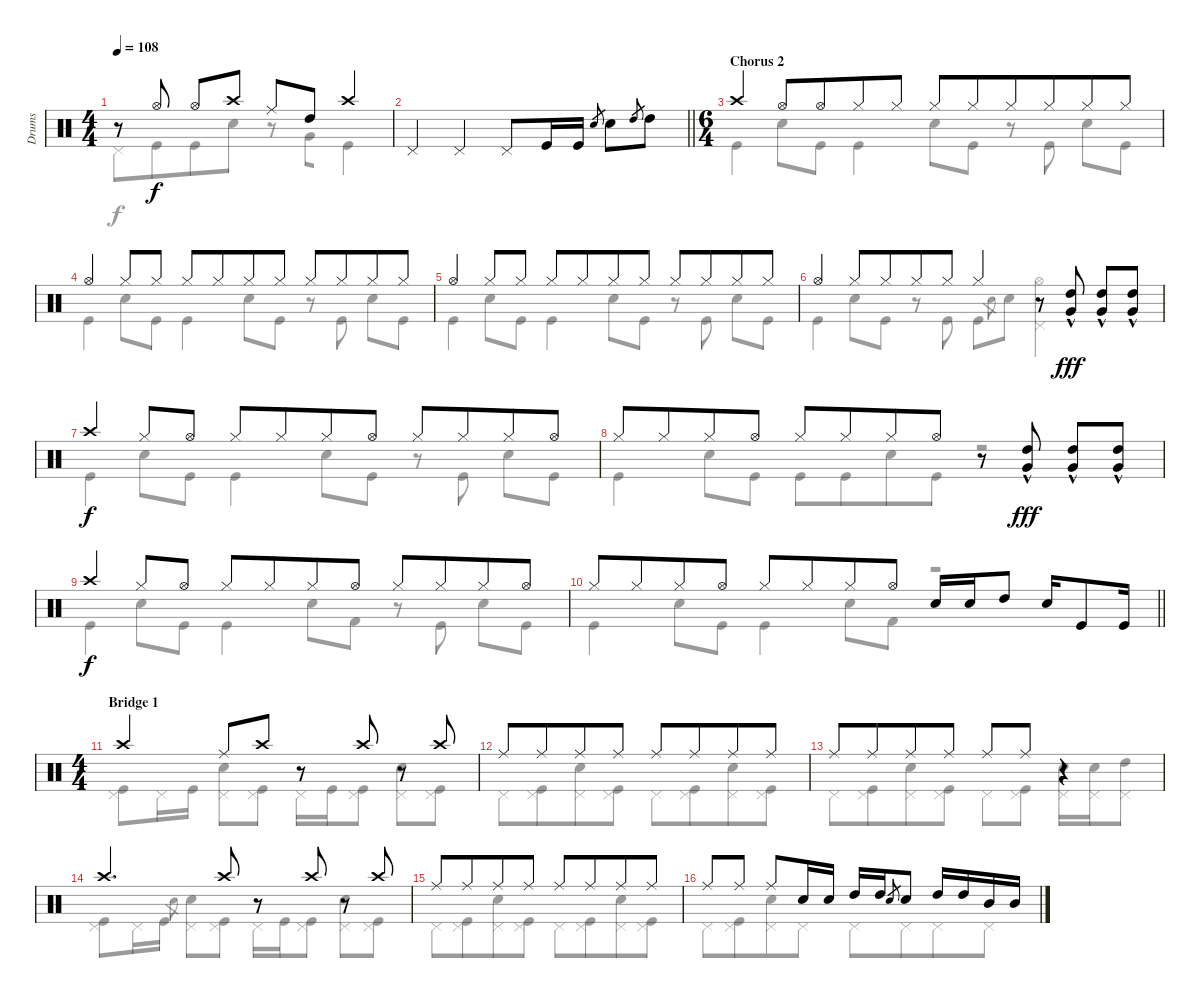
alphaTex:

\track ("Drums" "Drums") {instrument percussion}
\staff {score}
\articulation defaults
\voice
\ts (4 4)
\tempo 108
\clef neutral
\ks c
r.8{dy f} "Hi-Hat (open)".8 "Hi-Hat (open)".8 "Crash high (hit)".8 "Ride (middle)".8 "High Tom (hit)".8 "Crash high (hit)".4 |
\barLineRight lightlight "Pedal Hi-Hat (hit)".4 "Pedal Hi-Hat (hit)".4 "Pedal Hi-Hat (hit)".8 "Kick (hit)".16 "Kick (hit)".16 "Snare (hit) 2".8{gr} "Snare (hit) 2".8 "High Tom (hit)".8{gr} "High Tom (hit)".8
|
\ts (6 4)
\section ("" "Chorus 2")
"Crash high (hit)".4{beam Up beam split} "Hi-Hat (open)".8{beam Up beam merge} "Hi-Hat (open)".8{beam Up beam merge} "Hi-Hat (closed)".8{beam Up beam merge} "Hi-Hat (closed)".8{beam Up beam split} "Hi-Hat (closed)".8{beam Up beam merge} "Hi-Hat (closed)".8{beam Up beam merge} "Hi-Hat (closed)".8{beam Up beam merge} "Hi-Hat (closed)".8{beam Up beam merge} "Hi-Hat (closed)".8{beam Up beam merge} "Hi-Hat (closed)".8{beam Up} |
"Hi-Hat (open)".4{beam Up} "Hi-Hat (closed)".8{beam Up beam merge} "Hi-Hat (closed)".8{beam Up beam split} "Hi-Hat (closed)".8{beam Up beam merge} "Hi-Hat (closed)".8{beam Up beam merge} "Hi-Hat (closed)".8{beam Up beam merge} "Hi-Hat (closed)".8{beam Up beam split} "Hi-Hat (closed)".8{beam Up beam merge} "Hi-Hat (closed)".8{beam Up beam merge} "Hi-Hat (closed)".8{beam Up beam merge} "Hi-Hat (closed)".8{beam Up} |
"Hi-Hat (open)".4{beam Up} "Hi-Hat (closed)".8{beam Up beam merge} "Hi-Hat (closed)".8{beam Up beam split} "Hi-Hat (closed)".8{beam Up beam merge} "Hi-Hat (closed)".8{beam Up beam merge} "Hi-Hat (closed)".8{beam Up beam merge} "Hi-Hat (closed)".8{beam Up beam split} "Hi-Hat (closed)".8{beam Up beam merge} "Hi-Hat (closed)".8{beam Up beam merge} "Hi-Hat (closed)".8{beam Up beam merge} "Hi-Hat (closed)".8{beam Up} |
"Hi-Hat (open)".4{beam Up} "Hi-Hat (closed)".8{beam Up beam merge} "Hi-Hat (closed)".8{beam Up beam merge} "Hi-Hat (closed)".8{beam Up beam merge} "Hi-Hat (closed)".8{beam Up beam merge} "Hi-Hat (closed)".4{beam Up} r.8 ("High Tom (hit)"{hac} "Very Low Tom (hit)"{hac}).8{dy fff beam Up} ("High Tom (hit)"{hac} "Very Low Tom (hit)"{hac}).8{beam Up} ("High Tom (hit)"{hac} "Very Low Tom (hit)"{hac}).8{beam Up} |
"Crash high (hit)".4{dy f beam Up} "Hi-Hat (closed)".8{beam Up beam merge} "Hi-Hat (open)".8{beam Up beam split} "Hi-Hat (closed)".8{beam Up beam merge} "Hi-Hat (closed)".8{beam Up beam merge} "Hi-Hat (closed)".8{beam Up beam merge} "Hi-Hat (open)".8{beam Up beam split} "Hi-Hat (closed)".8{beam Up beam merge} "Hi-Hat (closed)".8{beam Up beam merge} "Hi-Hat (closed)".8{beam Up beam merge} "Hi-Hat (open)".8{beam Up} |
"Hi-Hat (closed)".8{beam Up beam merge} "Hi-Hat (closed)".8{beam Up beam merge} "Hi-Hat (closed)".8{beam Up beam merge} "Hi-Hat (open)".8{beam Up beam split} "Hi-Hat (closed)".8{beam Up beam merge} "Hi-Hat (closed)".8{beam Up beam merge} "Hi-Hat (closed)".8{beam Up beam merge} "Hi-Hat (open)".8{beam Up} r.8 ("High Tom (hit)"{hac} "Very Low Tom (hit)"{hac}).8{dy fff beam Up} ("High Tom (hit)"{hac} "Very Low Tom (hit)"{hac}).8{beam Up} ("High Tom (hit)"{hac} "Very Low Tom (hit)"{hac}).8{beam Up} |
"Crash high (hit)".4{dy f beam Up} "Hi-Hat (closed)".8{beam Up beam merge} "Hi-Hat (open)".8{beam Up beam split} "Hi-Hat (closed)".8{beam Up beam merge} "Hi-Hat (closed)".8{beam Up beam merge} "Hi-Hat (closed)".8{beam Up beam merge} "Hi-Hat (open)".8{beam Up beam split} "Hi-Hat (closed)".8{beam Up beam merge} "Hi-Hat (closed)".8{beam Up beam merge} "Hi-Hat (closed)".8{beam Up beam merge} "Hi-Hat (open)".8{beam Up} |
\barLineRight lightlight "Hi-Hat (closed)".8{beam Up beam merge} "Hi-Hat (closed)".8{beam Up beam merge} "Hi-Hat (closed)".8{beam Up beam merge} "Hi-Hat (open)".8{beam Up beam split} "Hi-Hat (closed)".8{beam Up beam merge} "Hi-Hat (closed)".8{beam Up beam merge} "Hi-Hat (closed)".8{beam Up beam merge} "Hi-Hat (open)".8{beam Up beam split} "Snare (hit) 2".16{beam Up beam merge} "Snare (hit) 2".16{beam Up beam merge} "High Tom (hit)".8{beam Up beam split} "Snare (hit) 2".16{beam Up beam merge} "Kick (hit)".8{beam Up} "Kick (hit)".16
|
\ts (4 4)
\section ("" "Bridge 1")
"Crash high (hit)".4{beam Up} "Ride (middle)".8{beam Up} "Crash high (hit)".8{beam Up} r.8 "Crash high (hit)".8{beam Up} r.8 "Crash high (hit)".8{beam Up} |
"Ride (middle)".8{beam Up} "Ride (middle)".8{beam Up beam merge} "Ride (middle)".8{beam Up} "Ride (middle)".8{beam Up} "Ride (middle)".8{beam Up} "Ride (middle)".8{beam Up beam merge} "Ride (middle)".8{beam Up} "Ride (middle)".8{beam Up} |
"Ride (middle)".8{beam Up} "Ride (middle)".8{beam Up beam merge} "Ride (middle)".8{beam Up} "Ride (middle)".8{beam Up} "Ride (middle)".8{beam Up} "Ride (middle)".8{beam Up} r.4 |
"Crash high (hit)".4{d beam Up} "Crash high (hit)".8{beam Up} r.8 "Crash high (hit)".8{beam Up} r.8 "Crash high (hit)".8{beam Up} |
"Ride (middle)".8{beam Up} "Ride (middle)".8{beam Up beam merge} "Ride (middle)".8{beam Up} "Ride (middle)".8{beam Up} "Ride (middle)".8{beam Up} "Ride (middle)".8{beam Up beam merge} "Ride (middle)".8{beam Up} "Ride (middle)".8{beam Up} |
"Ride (middle)".8{beam Up} "Ride (middle)".8{beam Up} "Ride (middle)".8{beam Up} "Snare (hit) 2".16{beam Up} "Snare (hit) 2".16{beam Up} "High Tom (hit)".16{beam Up} "High Tom (hit)".16{beam Up} "Snare (hit) 2".8{gr} "Snare (hit) 2".8{beam Up} "High Tom (hit)".16{beam Up} "High Tom (hit)".16{beam Up} "Mid Tom (hit)".16{beam Up} "Mid Tom (hit)".16{beam Up}
\voice
\clef neutral
\ottava regular
\simile none
\ks c "Pedal Hi-Hat (hit)".8{dy f} "Kick (hit)".8{beam merge} "Kick (hit)".8 "Snare (hit) 2".8
r.8 "Very Low Tom (hit)".8{beam merge} "Kick (hit)".4 |
\barLineRight lightlight
|
"Kick (hit)".4 "Snare (hit) 2".8 "Kick (hit)".8 "Kick (hit)".4 "Snare (hit) 2".8 "Kick (hit)".8 r.8 "Kick (hit)".8 "Snare (hit) 2".8 "Kick (hit)".8 |
"Kick (hit)".4 "Snare (hit) 2".8 "Kick (hit)".8 "Kick (hit)".4 "Snare (hit) 2".8 "Kick (hit)".8 r.8 "Kick (hit)".8 "Snare (hit) 2".8 "Kick (hit)".8 |
"Kick (hit)".4 "Snare (hit) 2".8 "Kick (hit)".8 "Kick (hit)".4 "Snare (hit) 2".8 "Kick (hit)".8 r.8 "Kick (hit)".8 "Snare (hit) 2".8 "Kick (hit)".8 |
"Kick (hit)".4 "Snare (hit) 2".8 "Kick (hit)".8 r.8 "Kick (hit)".8 "Kick (hit)".8{beam Down} "Snare (hit) 2".8{gr} "Snare (hit) 2".8{beam Down} ("Hi-Hat (open)" "Pedal Hi-Hat (hit)").2 |
"Kick (hit)".4 "Snare (hit) 2".8 "Kick (hit)".8 "Kick (hit)".4 "Snare (hit) 2".8 "Kick (hit)".8 r.8 "Kick (hit)".8 "Snare (hit) 2".8 "Kick (hit)".8 |
"Kick (hit)".4 "Snare (hit) 2".8{beam merge} "Kick (hit)".8{beam split} "Kick (hit)".8{beam merge} "Kick (hit)".8{beam merge} "Snare (hit) 2".8{beam merge} "Kick (hit)".8 r.2 |
"Kick (hit)".4 "Snare (hit) 2".8 "Kick (hit)".8 "Kick (hit)".4 "Snare (hit) 2".8 "Kick (hit) 2".8 r.8 "Kick (hit)".8 "Snare (hit) 2".8 "Kick (hit)".8 |
\barLineRight lightlight "Kick (hit)".4 "Snare (hit) 2".8 "Kick (hit)".8 "Kick (hit)".4 "Snare (hit) 2".8 "Kick (hit) 2".8
r.2 |
("Kick (hit)" "Pedal Hi-Hat (hit)").8 "Pedal Hi-Hat (hit)".16 "Kick (hit)".16 ("Snare (hit) 2" "Pedal Hi-Hat (hit)").8 ("Kick (hit)" "Pedal Hi-Hat (hit)").8 "Pedal Hi-Hat (hit)".16{beam Down} "Kick (hit)".16{beam Down} ("Kick (hit)" "Pedal Hi-Hat (hit)").8{beam Down} ("Snare (hit) 2" "Pedal Hi-Hat (hit)").8 ("Kick (hit)" "Pedal Hi-Hat (hit)").8 |
"Pedal Hi-Hat (hit)".8 ("Kick (hit)" "Pedal Hi-Hat (hit)").8{beam merge} ("Snare (hit) 2" "Pedal Hi-Hat (hit)").8 ("Kick (hit)" "Pedal Hi-Hat (hit)").8 "Pedal Hi-Hat (hit)".8 ("Kick (hit)" "Pedal Hi-Hat (hit)").8{beam merge} ("Snare (hit) 2" "Pedal Hi-Hat (hit)").8 ("Kick (hit)" "Pedal Hi-Hat (hit)").8 |
"Pedal Hi-Hat (hit)".8 ("Kick (hit)" "Pedal Hi-Hat (hit)").8{beam merge} ("Snare (hit) 2" "Pedal Hi-Hat (hit)").8 ("Kick (hit)" "Pedal Hi-Hat (hit)").8 "Pedal Hi-Hat (hit)".8{beam merge} ("Kick (hit)" "Pedal Hi-Hat (hit)").8 ("Snare (hit) 2" "Pedal Hi-Hat (hit)").16{beam merge} ("Snare (hit) 2" "Pedal Hi-Hat (hit)").16 ("High Tom (hit)" "Pedal Hi-Hat (hit)").8 |
("Kick (hit)" "Pedal Hi-Hat (hit)").8 "Pedal Hi-Hat (hit)".16 "Kick (hit)".16 "Snare (hit) 2".8{gr} ("Snare (hit) 2" "Pedal Hi-Hat (hit)").8 ("Kick (hit)" "Pedal Hi-Hat (hit)").8 "Pedal Hi-Hat (hit)".16{beam Down} "Kick (hit)".16{beam Down} ("Kick (hit)" "Pedal Hi-Hat (hit)").8{beam Down} ("Snare (hit) 2" "Pedal Hi-Hat (hit)").8 ("Kick (hit)" "Pedal Hi-Hat (hit)").8 |
"Pedal Hi-Hat (hit)".8 ("Kick (hit)" "Pedal Hi-Hat (hit)").8{beam merge} ("Snare (hit) 2" "Pedal Hi-Hat (hit)").8 ("Kick (hit)" "Pedal Hi-Hat (hit)").8 "Pedal Hi-Hat (hit)".8 ("Kick (hit)" "Pedal Hi-Hat (hit)").8{beam merge} ("Snare (hit) 2" "Pedal Hi-Hat (hit)").8 ("Kick (hit)" "Pedal Hi-Hat (hit)").8 |
"Pedal Hi-Hat (hit)".8 ("Kick (hit)" "Pedal Hi-Hat (hit)").8{beam merge} ("Snare (hit) 2" "Pedal Hi-Hat (hit)").8 "Pedal Hi-Hat (hit)".8 "Pedal Hi-Hat (hit)".8 "Pedal Hi-Hat (hit)".8{beam merge} "Pedal Hi-Hat (hit)".8 "Pedal Hi-Hat (hit)".8
